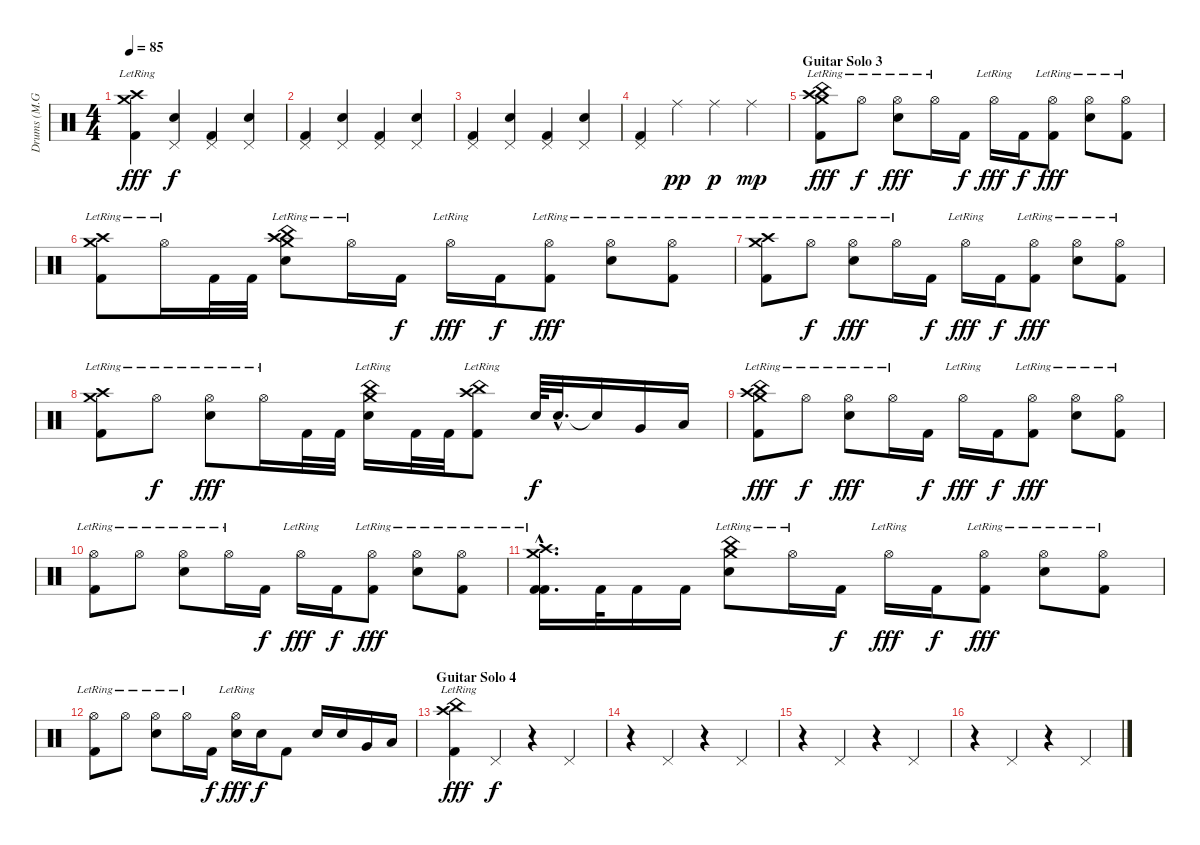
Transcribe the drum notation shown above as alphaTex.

\track ("Drums (M.Grosskopf)" "Drums (M.G") {instrument percussion}
\staff {score}
\articulation defaults
\ts (4 4)
\tempo 85
\clef neutral
\ks c
("Crash high (hit)"{lr} "Crash medium (hit)"{lr} "Kick (hit) 2").4{dy fff} ("Pedal Hi-Hat (hit)" "Electric Snare (hit)").4{dy f} ("Pedal Hi-Hat (hit)" "Kick (hit) 2").4 ("Pedal Hi-Hat (hit)" "Electric Snare (hit)").4 |
("Pedal Hi-Hat (hit)" "Kick (hit) 2").4 ("Pedal Hi-Hat (hit)" "Electric Snare (hit)").4 ("Pedal Hi-Hat (hit)" "Kick (hit) 2").4 ("Pedal Hi-Hat (hit)" "Electric Snare (hit)").4 |
("Pedal Hi-Hat (hit)" "Kick (hit) 2").4 ("Pedal Hi-Hat (hit)" "Electric Snare (hit)").4 ("Pedal Hi-Hat (hit)" "Kick (hit) 2").4 ("Pedal Hi-Hat (hit)" "Electric Snare (hit)").4 |
("Pedal Hi-Hat (hit)" "Kick (hit) 2").4 "Ride (middle)".4{dy pp} "Ride (middle)".4{dy p} "Ride (middle)".4{dy mp} |
\section ("" "Guitar Solo 3")
("Crash high (hit)"{lr} "Crash medium (hit)"{lr} "Kick (hit) 2" "China (hit)"{lr}).8{dy fff} "Hi-Hat (open)"{lr}.8{dy f} ("Hi-Hat (open)"{lr} "Electric Snare (hit)").8{dy fff} "Hi-Hat (open)"{lr}.16 "Kick (hit) 2".16{dy f} "Hi-Hat (open)"{lr}.16{dy fff} "Kick (hit) 2".16{dy f} ("Hi-Hat (open)"{lr} "Kick (hit) 2").8{dy fff} ("Hi-Hat (open)"{lr} "Electric Snare (hit)").8 ("Hi-Hat (open)"{lr} "Kick (hit) 2").8 |
("Crash high (hit)"{lr} "Crash medium (hit)"{lr} "Kick (hit) 2").8 "Hi-Hat (open)"{lr}.16 "Kick (hit) 2".32 "Kick (hit) 2".32 ("Crash high (hit)"{lr} "Crash medium (hit)"{lr} "Electric Snare (hit)" "China (hit)"{lr}).8 "Hi-Hat (open)"{lr}.16 "Kick (hit) 2".16{dy f} "Hi-Hat (open)"{lr}.16{dy fff} "Kick (hit) 2".16{dy f} ("Hi-Hat (open)"{lr} "Kick (hit) 2").8{dy fff} ("Hi-Hat (open)"{lr} "Electric Snare (hit)").8 ("Hi-Hat (open)"{lr} "Kick (hit) 2").8 |
("Crash high (hit)"{lr} "Crash medium (hit)"{lr} "Kick (hit) 2").8 "Hi-Hat (open)"{lr}.8{dy f} ("Hi-Hat (open)"{lr} "Electric Snare (hit)").8{dy fff} "Hi-Hat (open)"{lr}.16 "Kick (hit) 2".16{dy f} "Hi-Hat (open)"{lr}.16{dy fff} "Kick (hit) 2".16{dy f} ("Hi-Hat (open)"{lr} "Kick (hit) 2").8{dy fff} ("Hi-Hat (open)"{lr} "Electric Snare (hit)").8 ("Hi-Hat (open)"{lr} "Kick (hit) 2").8 |
("Crash high (hit)"{lr} "Crash medium (hit)"{lr} "Kick (hit) 2").8 "Hi-Hat (open)"{lr}.8{dy f} ("Hi-Hat (open)"{lr} "Electric Snare (hit)").8{dy fff} "Hi-Hat (open)"{lr}.16 "Kick (hit) 2".32 "Kick (hit) 2".32 ("Crash medium (hit)"{lr} "China (hit)"{lr} "Electric Snare (hit)").16 "Kick (hit) 2".32 "Kick (hit) 2".32 ("Crash high (hit)"{lr} "China (hit)"{lr} "Kick (hit) 2").8 "Electric Snare (hit)".64{dy f} "Electric Snare (hit)"{hac}.32{d} "Snare (hit)"{t}.16 "Very Low Tom (hit)".16 "Low Floor Tom (hit)".16 |
("Crash high (hit)"{lr} "Crash medium (hit)"{lr} "Kick (hit) 2" "China (hit)"{lr}).8{dy fff} "Hi-Hat (open)"{lr}.8{dy f} ("Hi-Hat (open)"{lr} "Electric Snare (hit)").8{dy fff} "Hi-Hat (open)"{lr}.16 "Kick (hit) 2".16{dy f} "Hi-Hat (open)"{lr}.16{dy fff} "Kick (hit) 2".16{dy f} ("Hi-Hat (open)"{lr} "Kick (hit) 2").8{dy fff} ("Hi-Hat (open)"{lr} "Electric Snare (hit)").8 ("Hi-Hat (open)"{lr} "Kick (hit) 2").8 |
("Hi-Hat (open)"{lr} "Kick (hit) 2").8 "Hi-Hat (open)"{lr}.8 ("Hi-Hat (open)"{lr} "Electric Snare (hit)").8 "Hi-Hat (open)"{lr}.16 "Kick (hit) 2".16{dy f} "Hi-Hat (open)"{lr}.16{dy fff} "Kick (hit) 2".16{dy f} ("Hi-Hat (open)"{lr} "Kick (hit) 2").8{dy fff} ("Hi-Hat (open)"{lr} "Electric Snare (hit)").8 ("Hi-Hat (open)"{lr} "Kick (hit) 2").8 |
("Crash high (hit)"{hac lr} "Crash medium (hit)"{hac lr} "Kick (hit) 2"{hac} "Kick (hit) 2"{hac}).16{d} "Kick (hit) 2".32 "Kick (hit) 2".16 "Kick (hit) 2".16 ("China (hit)"{lr} "Crash medium (hit)"{lr} "Electric Snare (hit)").8 "Hi-Hat (open)"{lr}.16 "Kick (hit) 2".16{dy f} "Hi-Hat (open)"{lr}.16{dy fff} "Kick (hit) 2".16{dy f} ("Hi-Hat (open)"{lr} "Kick (hit) 2").8{dy fff} ("Hi-Hat (open)"{lr} "Electric Snare (hit)").8 ("Hi-Hat (open)"{lr} "Kick (hit) 2").8 |
("Hi-Hat (open)"{lr} "Kick (hit) 2").8 "Hi-Hat (open)"{lr}.8 ("Hi-Hat (open)"{lr} "Electric Snare (hit)").8 "Hi-Hat (open)"{lr}.16 "Kick (hit) 2".16{dy f} ("Hi-Hat (open)"{lr} "Electric Snare (hit)").16{dy fff} "Electric Snare (hit)".16{dy f} "Kick (hit) 2".8 "Electric Snare (hit)".16 "Electric Snare (hit)".16 "Very Low Tom (hit)".16 "Low Floor Tom (hit)".16 |
\section ("" "Guitar Solo 4")
("Crash high (hit)"{lr} "Kick (hit) 2" "China (hit)"{lr}).4{dy fff} "Pedal Hi-Hat (hit)".4{dy f} r.4 "Pedal Hi-Hat (hit)".4 |
r.4 "Pedal Hi-Hat (hit)".4 r.4 "Pedal Hi-Hat (hit)".4 |
r.4 "Pedal Hi-Hat (hit)".4 r.4 "Pedal Hi-Hat (hit)".4 |
r.4 "Pedal Hi-Hat (hit)".4 r.4 "Pedal Hi-Hat (hit)".4
